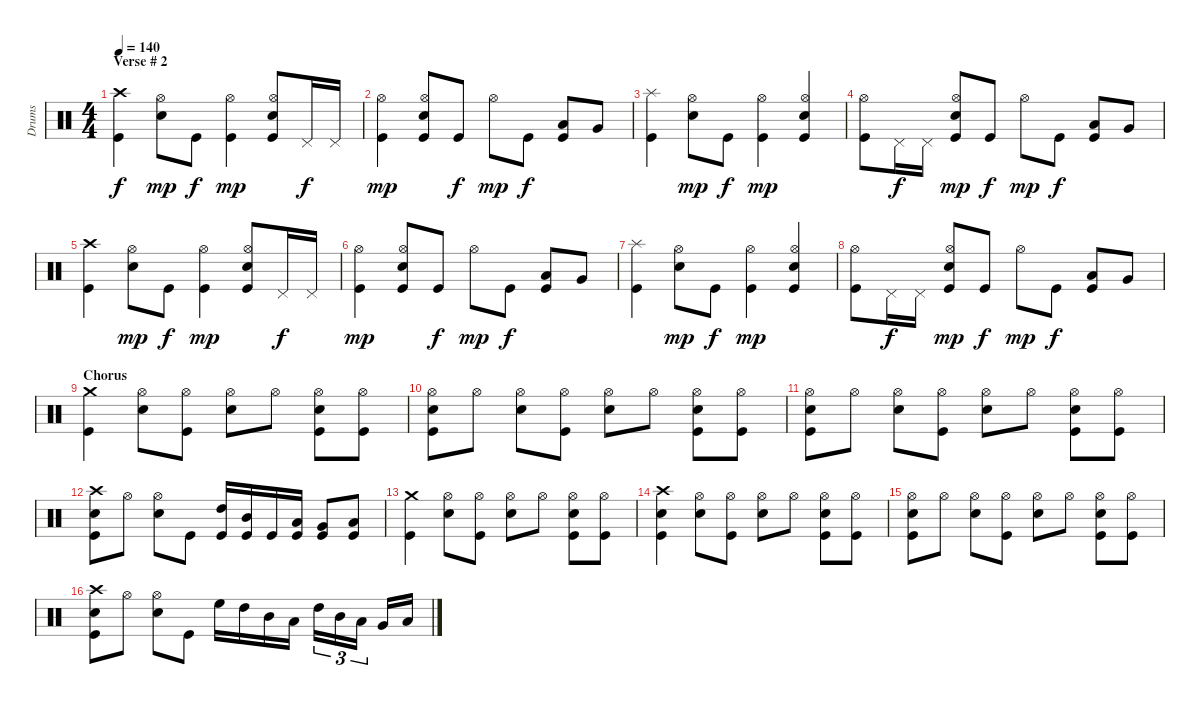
\track ("Drums" "Drums") {instrument percussion}
\staff {score}
\articulation defaults
\ts (4 4)
\section ("" "Verse # 2")
\tempo 140
\clef neutral
\ks c
("Crash high (hit)" "Kick (hit)").4{dy f} ("Hi-Hat (open)" "Electric Snare (hit)").8{dy mp} "Kick (hit)".8{dy f} ("Hi-Hat (open)" "Kick (hit)").4{dy mp} ("Hi-Hat (open)" "Electric Snare (hit)" "Kick (hit)").8 "Pedal Hi-Hat (hit)".16{dy f} "Pedal Hi-Hat (hit)".16 |
("Hi-Hat (open)" "Kick (hit)").4{dy mp} ("Hi-Hat (open)" "Electric Snare (hit)" "Kick (hit)").8 "Kick (hit)".8{dy f} "Hi-Hat (open)".8{dy mp} "Kick (hit)".8{dy f} ("Low Tom (hit)" "Kick (hit)").8 "Very Low Tom (hit)".8 |
("Splash (hit)" "Kick (hit)").4 ("Hi-Hat (open)" "Electric Snare (hit)").8{dy mp} "Kick (hit)".8{dy f} ("Hi-Hat (open)" "Kick (hit)").4{dy mp} ("Hi-Hat (open)" "Electric Snare (hit)" "Kick (hit)").4 |
("Hi-Hat (open)" "Kick (hit)").8 "Pedal Hi-Hat (hit)".16{dy f} "Pedal Hi-Hat (hit)".16 ("Hi-Hat (open)" "Electric Snare (hit)" "Kick (hit)").8{dy mp} "Kick (hit)".8{dy f} "Hi-Hat (open)".8{dy mp} "Kick (hit)".8{dy f} ("Low Tom (hit)" "Kick (hit)").8 "Very Low Tom (hit)".8 |
("Crash high (hit)" "Kick (hit)").4 ("Hi-Hat (open)" "Electric Snare (hit)").8{dy mp} "Kick (hit)".8{dy f} ("Hi-Hat (open)" "Kick (hit)").4{dy mp} ("Hi-Hat (open)" "Electric Snare (hit)" "Kick (hit)").8 "Pedal Hi-Hat (hit)".16{dy f} "Pedal Hi-Hat (hit)".16 |
("Hi-Hat (open)" "Kick (hit)").4{dy mp} ("Hi-Hat (open)" "Electric Snare (hit)" "Kick (hit)").8 "Kick (hit)".8{dy f} "Hi-Hat (open)".8{dy mp} "Kick (hit)".8{dy f} ("Low Tom (hit)" "Kick (hit)").8 "Very Low Tom (hit)".8 |
("Splash (hit)" "Kick (hit)").4 ("Hi-Hat (open)" "Electric Snare (hit)").8{dy mp} "Kick (hit)".8{dy f} ("Hi-Hat (open)" "Kick (hit)").4{dy mp} ("Hi-Hat (open)" "Electric Snare (hit)" "Kick (hit)").4 |
("Hi-Hat (open)" "Kick (hit)").8 "Pedal Hi-Hat (hit)".16{dy f} "Pedal Hi-Hat (hit)".16 ("Hi-Hat (open)" "Electric Snare (hit)" "Kick (hit)").8{dy mp} "Kick (hit)".8{dy f} "Hi-Hat (open)".8{dy mp} "Kick (hit)".8{dy f} ("Low Tom (hit)" "Kick (hit)").8 "Very Low Tom (hit)".8 |
\section ("" "Chorus")
("Crash medium (hit)" "Kick (hit)").4 ("Hi-Hat (open)" "Electric Snare (hit)").8 ("Hi-Hat (open)" "Kick (hit)").8 ("Hi-Hat (open)" "Electric Snare (hit)").8 "Hi-Hat (open)".8 ("Hi-Hat (open)" "Electric Snare (hit)" "Kick (hit)").8 ("Hi-Hat (open)" "Kick (hit)").8 |
("Hi-Hat (open)" "Electric Snare (hit)" "Kick (hit)").8 "Hi-Hat (open)".8 ("Hi-Hat (open)" "Electric Snare (hit)").8 ("Hi-Hat (open)" "Kick (hit)").8 ("Hi-Hat (open)" "Electric Snare (hit)").8 "Hi-Hat (open)".8 ("Hi-Hat (open)" "Electric Snare (hit)" "Kick (hit)").8 ("Hi-Hat (open)" "Kick (hit)").8 |
("Hi-Hat (open)" "Electric Snare (hit)" "Kick (hit)").8 "Hi-Hat (open)".8 ("Hi-Hat (open)" "Electric Snare (hit)").8 ("Hi-Hat (open)" "Kick (hit)").8 ("Hi-Hat (open)" "Electric Snare (hit)").8 "Hi-Hat (open)".8 ("Hi-Hat (open)" "Electric Snare (hit)" "Kick (hit)").8 ("Hi-Hat (open)" "Kick (hit)").8 |
("Crash high (hit)" "Electric Snare (hit)" "Kick (hit)").8 "Hi-Hat (open)".8 ("Hi-Hat (open)" "Electric Snare (hit)").8 "Kick (hit)".8 ("High Tom (hit)" "Kick (hit)").16 ("Mid Tom (hit)" "Kick (hit)").16 "Kick (hit)".16 ("Low Tom (hit)" "Kick (hit)").16 ("Very Low Tom (hit)" "Kick (hit)").8 ("Low Floor Tom (hit)" "Kick (hit)").8 |
("Crash medium (hit)" "Kick (hit)").4 ("Hi-Hat (open)" "Electric Snare (hit)").8 ("Hi-Hat (open)" "Kick (hit)").8 ("Hi-Hat (open)" "Electric Snare (hit)").8 "Hi-Hat (open)".8 ("Hi-Hat (open)" "Electric Snare (hit)" "Kick (hit)").8 ("Hi-Hat (open)" "Kick (hit)").8 |
("Crash high (hit)" "Electric Snare (hit)" "Kick (hit)").4 ("Hi-Hat (open)" "Electric Snare (hit)").8 ("Hi-Hat (open)" "Kick (hit)").8 ("Hi-Hat (open)" "Electric Snare (hit)").8 "Hi-Hat (open)".8 ("Hi-Hat (open)" "Electric Snare (hit)" "Kick (hit)").8 ("Hi-Hat (open)" "Kick (hit)").8 |
("Hi-Hat (open)" "Electric Snare (hit)" "Kick (hit)").8 "Hi-Hat (open)".8 ("Hi-Hat (open)" "Electric Snare (hit)").8 ("Hi-Hat (open)" "Kick (hit)").8 ("Hi-Hat (open)" "Electric Snare (hit)").8 "Hi-Hat (open)".8 ("Hi-Hat (open)" "Electric Snare (hit)" "Kick (hit)").8 ("Hi-Hat (open)" "Kick (hit)").8 |
("Crash high (hit)" "Electric Snare (hit)" "Kick (hit)").8 "Hi-Hat (open)".8 ("Hi-Hat (open)" "Electric Snare (hit)").8 "Kick (hit)".8 "High Floor Tom (hit)".16 "High Tom (hit)".16 "Mid Tom (hit)".16 "Low Tom (hit)".16 "High Tom (hit)".16{tu (3 2)} "Mid Tom (hit)".16{tu (3 2)} "Low Tom (hit)".16{tu (3 2)} "Very Low Tom (hit)".16 "Low Floor Tom (hit)".16
